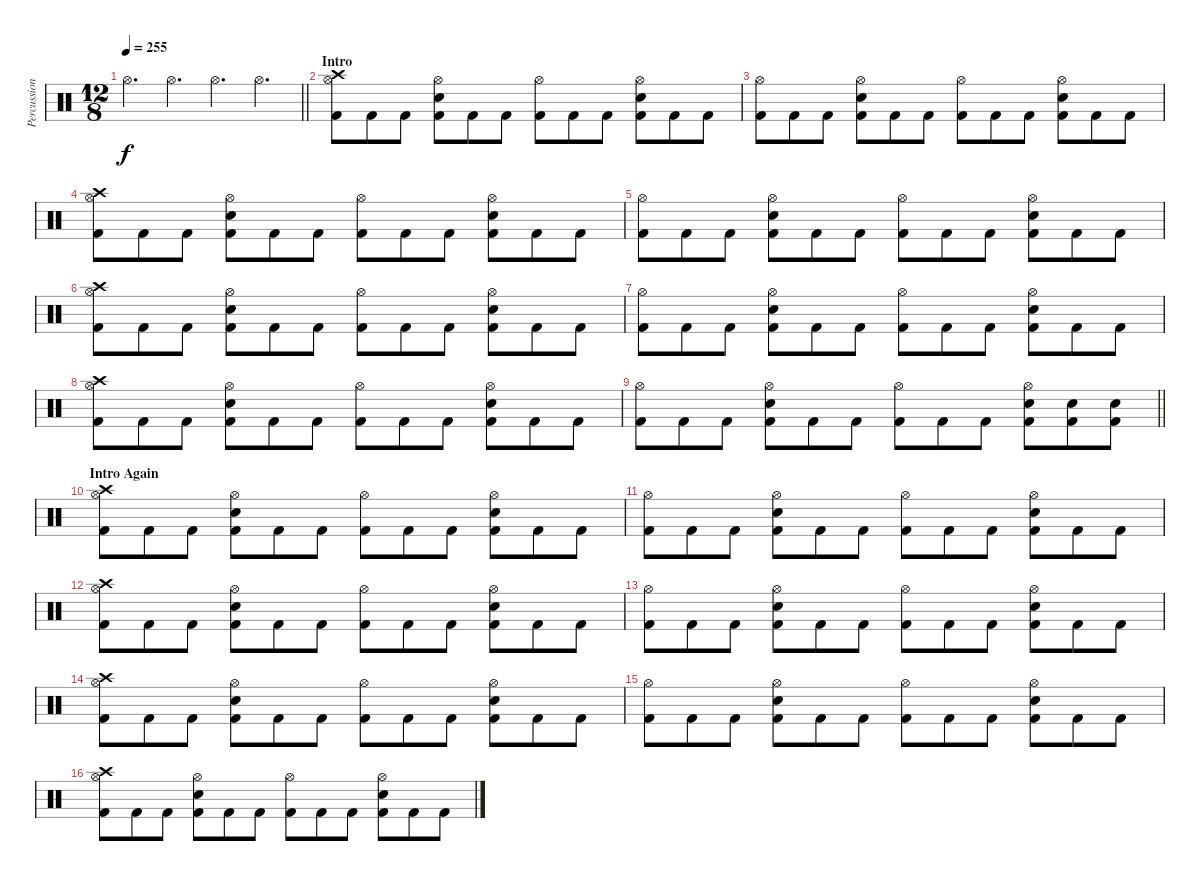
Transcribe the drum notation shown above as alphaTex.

\track ("Percussion" "Percussion") {instrument percussion}
\staff {score}
\articulation defaults
\ts (12 8)
\tempo 255
\clef neutral
\barLineRight lightlight
\ks c "Hi-Hat (open)".4{d dy f} "Hi-Hat (open)".4{d} "Hi-Hat (open)".4{d} "Hi-Hat (open)".4{d}
|
\section ("" "Intro")
("Crash high (hit)" "Hi-Hat (open)" "Kick (hit) 2").8 "Kick (hit) 2".8 "Kick (hit) 2".8 ("Hi-Hat (open)" "Snare (hit) 2" "Kick (hit) 2").8 "Kick (hit) 2".8 "Kick (hit) 2".8 ("Hi-Hat (open)" "Kick (hit) 2").8 "Kick (hit) 2".8 "Kick (hit) 2".8 ("Hi-Hat (open)" "Snare (hit) 2" "Kick (hit) 2").8 "Kick (hit) 2".8 "Kick (hit) 2".8 |
("Hi-Hat (open)" "Kick (hit) 2").8 "Kick (hit) 2".8 "Kick (hit) 2".8 ("Hi-Hat (open)" "Snare (hit) 2" "Kick (hit) 2").8 "Kick (hit) 2".8 "Kick (hit) 2".8 ("Hi-Hat (open)" "Kick (hit) 2").8 "Kick (hit) 2".8 "Kick (hit) 2".8 ("Hi-Hat (open)" "Snare (hit) 2" "Kick (hit) 2").8 "Kick (hit) 2".8 "Kick (hit) 2".8 |
("Crash high (hit)" "Hi-Hat (open)" "Kick (hit) 2").8 "Kick (hit) 2".8 "Kick (hit) 2".8 ("Hi-Hat (open)" "Snare (hit) 2" "Kick (hit) 2").8 "Kick (hit) 2".8 "Kick (hit) 2".8 ("Hi-Hat (open)" "Kick (hit) 2").8 "Kick (hit) 2".8 "Kick (hit) 2".8 ("Hi-Hat (open)" "Snare (hit) 2" "Kick (hit) 2").8 "Kick (hit) 2".8 "Kick (hit) 2".8 |
("Hi-Hat (open)" "Kick (hit) 2").8 "Kick (hit) 2".8 "Kick (hit) 2".8 ("Hi-Hat (open)" "Snare (hit) 2" "Kick (hit) 2").8 "Kick (hit) 2".8 "Kick (hit) 2".8 ("Hi-Hat (open)" "Kick (hit) 2").8 "Kick (hit) 2".8 "Kick (hit) 2".8 ("Hi-Hat (open)" "Snare (hit) 2" "Kick (hit) 2").8 "Kick (hit) 2".8 "Kick (hit) 2".8 |
("Crash high (hit)" "Hi-Hat (open)" "Kick (hit) 2").8 "Kick (hit) 2".8 "Kick (hit) 2".8 ("Hi-Hat (open)" "Snare (hit) 2" "Kick (hit) 2").8 "Kick (hit) 2".8 "Kick (hit) 2".8 ("Hi-Hat (open)" "Kick (hit) 2").8 "Kick (hit) 2".8 "Kick (hit) 2".8 ("Hi-Hat (open)" "Snare (hit) 2" "Kick (hit) 2").8 "Kick (hit) 2".8 "Kick (hit) 2".8 |
("Hi-Hat (open)" "Kick (hit) 2").8 "Kick (hit) 2".8 "Kick (hit) 2".8 ("Hi-Hat (open)" "Snare (hit) 2" "Kick (hit) 2").8 "Kick (hit) 2".8 "Kick (hit) 2".8 ("Hi-Hat (open)" "Kick (hit) 2").8 "Kick (hit) 2".8 "Kick (hit) 2".8 ("Hi-Hat (open)" "Snare (hit) 2" "Kick (hit) 2").8 "Kick (hit) 2".8 "Kick (hit) 2".8 |
("Crash high (hit)" "Hi-Hat (open)" "Kick (hit) 2").8 "Kick (hit) 2".8 "Kick (hit) 2".8 ("Hi-Hat (open)" "Snare (hit) 2" "Kick (hit) 2").8 "Kick (hit) 2".8 "Kick (hit) 2".8 ("Hi-Hat (open)" "Kick (hit) 2").8 "Kick (hit) 2".8 "Kick (hit) 2".8 ("Hi-Hat (open)" "Snare (hit) 2" "Kick (hit) 2").8 "Kick (hit) 2".8 "Kick (hit) 2".8 |
\barLineRight lightlight
("Hi-Hat (open)" "Kick (hit) 2").8 "Kick (hit) 2".8 "Kick (hit) 2".8 ("Hi-Hat (open)" "Snare (hit) 2" "Kick (hit) 2").8 "Kick (hit) 2".8 "Kick (hit) 2".8 ("Hi-Hat (open)" "Kick (hit) 2").8 "Kick (hit) 2".8 "Kick (hit) 2".8 ("Hi-Hat (open)" "Snare (hit) 2" "Kick (hit) 2").8 ("Snare (hit) 2" "Kick (hit) 2").8 ("Snare (hit) 2" "Kick (hit) 2").8 |
\section ("" "Intro Again")
("Crash high (hit)" "Hi-Hat (open)" "Kick (hit) 2").8 "Kick (hit) 2".8 "Kick (hit) 2".8 ("Hi-Hat (open)" "Snare (hit) 2" "Kick (hit) 2").8 "Kick (hit) 2".8 "Kick (hit) 2".8 ("Hi-Hat (open)" "Kick (hit) 2").8 "Kick (hit) 2".8 "Kick (hit) 2".8 ("Hi-Hat (open)" "Snare (hit) 2" "Kick (hit) 2").8 "Kick (hit) 2".8 "Kick (hit) 2".8 |
("Hi-Hat (open)" "Kick (hit) 2").8 "Kick (hit) 2".8 "Kick (hit) 2".8 ("Hi-Hat (open)" "Snare (hit) 2" "Kick (hit) 2").8 "Kick (hit) 2".8 "Kick (hit) 2".8 ("Hi-Hat (open)" "Kick (hit) 2").8 "Kick (hit) 2".8 "Kick (hit) 2".8 ("Hi-Hat (open)" "Snare (hit) 2" "Kick (hit) 2").8 "Kick (hit) 2".8 "Kick (hit) 2".8 |
("Crash high (hit)" "Hi-Hat (open)" "Kick (hit) 2").8 "Kick (hit) 2".8 "Kick (hit) 2".8 ("Hi-Hat (open)" "Snare (hit) 2" "Kick (hit) 2").8 "Kick (hit) 2".8 "Kick (hit) 2".8 ("Hi-Hat (open)" "Kick (hit) 2").8 "Kick (hit) 2".8 "Kick (hit) 2".8 ("Hi-Hat (open)" "Snare (hit) 2" "Kick (hit) 2").8 "Kick (hit) 2".8 "Kick (hit) 2".8 |
("Hi-Hat (open)" "Kick (hit) 2").8 "Kick (hit) 2".8 "Kick (hit) 2".8 ("Hi-Hat (open)" "Snare (hit) 2" "Kick (hit) 2").8 "Kick (hit) 2".8 "Kick (hit) 2".8 ("Hi-Hat (open)" "Kick (hit) 2").8 "Kick (hit) 2".8 "Kick (hit) 2".8 ("Hi-Hat (open)" "Snare (hit) 2" "Kick (hit) 2").8 "Kick (hit) 2".8 "Kick (hit) 2".8 |
("Crash high (hit)" "Hi-Hat (open)" "Kick (hit) 2").8 "Kick (hit) 2".8 "Kick (hit) 2".8 ("Hi-Hat (open)" "Snare (hit) 2" "Kick (hit) 2").8 "Kick (hit) 2".8 "Kick (hit) 2".8 ("Hi-Hat (open)" "Kick (hit) 2").8 "Kick (hit) 2".8 "Kick (hit) 2".8 ("Hi-Hat (open)" "Snare (hit) 2" "Kick (hit) 2").8 "Kick (hit) 2".8 "Kick (hit) 2".8 |
("Hi-Hat (open)" "Kick (hit) 2").8 "Kick (hit) 2".8 "Kick (hit) 2".8 ("Hi-Hat (open)" "Snare (hit) 2" "Kick (hit) 2").8 "Kick (hit) 2".8 "Kick (hit) 2".8 ("Hi-Hat (open)" "Kick (hit) 2").8 "Kick (hit) 2".8 "Kick (hit) 2".8 ("Hi-Hat (open)" "Snare (hit) 2" "Kick (hit) 2").8 "Kick (hit) 2".8 "Kick (hit) 2".8 |
("Crash high (hit)" "Hi-Hat (open)" "Kick (hit) 2").8 "Kick (hit) 2".8 "Kick (hit) 2".8 ("Hi-Hat (open)" "Snare (hit) 2" "Kick (hit) 2").8 "Kick (hit) 2".8 "Kick (hit) 2".8 ("Hi-Hat (open)" "Kick (hit) 2").8 "Kick (hit) 2".8 "Kick (hit) 2".8 ("Hi-Hat (open)" "Snare (hit) 2" "Kick (hit) 2").8 "Kick (hit) 2".8 "Kick (hit) 2".8
